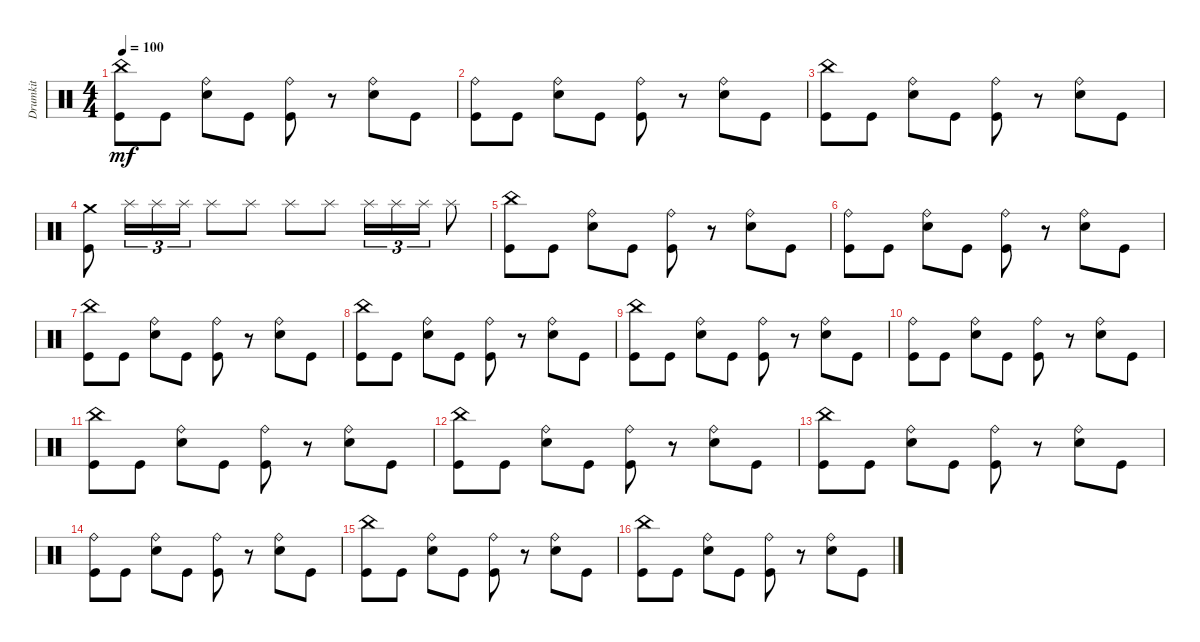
\track ("Drumkit" "Drumkit") {instrument percussion}
\staff {score}
\articulation defaults
\ts (4 4)
\tempo 100
\clef neutral
\ks c
("Kick (hit)" "China (hit)").8{dy mf} "Kick (hit)".8 ("Snare (hit) 2" "Ride (bell)").8 "Kick (hit)".8 ("Kick (hit)" "Ride (bell)").8 r.8 ("Snare (hit) 2" "Ride (bell)").8 "Kick (hit)".8 |
("Kick (hit)" "Ride (bell)").8 "Kick (hit)".8 ("Snare (hit) 2" "Ride (bell)").8 "Kick (hit)".8 ("Kick (hit)" "Ride (bell)").8 r.8 ("Snare (hit) 2" "Ride (bell)").8 "Kick (hit)".8 |
("Kick (hit)" "China (hit)").8 "Kick (hit)".8 ("Snare (hit) 2" "Ride (bell)").8 "Kick (hit)".8 ("Kick (hit)" "Ride (bell)").8 r.8 ("Snare (hit) 2" "Ride (bell)").8 "Kick (hit)".8 |
("Crash medium (hit)" "Kick (hit)").8 "Splash (hit)".16{tu (3 2)} "Splash (hit)".16{tu (3 2)} "Splash (hit)".16{tu (3 2)} "Splash (hit)".8 "Splash (hit)".8 "Splash (hit)".8 "Splash (hit)".8 "Splash (hit)".16{tu (3 2)} "Splash (hit)".16{tu (3 2)} "Splash (hit)".16{tu (3 2)} "Splash (hit)".8 |
("Kick (hit)" "China (hit)").8 "Kick (hit)".8 ("Snare (hit) 2" "Ride (bell)").8 "Kick (hit)".8 ("Kick (hit)" "Ride (bell)").8 r.8 ("Snare (hit) 2" "Ride (bell)").8 "Kick (hit)".8 |
("Kick (hit)" "Ride (bell)").8 "Kick (hit)".8 ("Snare (hit) 2" "Ride (bell)").8 "Kick (hit)".8 ("Kick (hit)" "Ride (bell)").8 r.8 ("Snare (hit) 2" "Ride (bell)").8 "Kick (hit)".8 |
("Kick (hit)" "China (hit)").8 "Kick (hit)".8 ("Snare (hit) 2" "Ride (bell)").8 "Kick (hit)".8 ("Kick (hit)" "Ride (bell)").8 r.8 ("Snare (hit) 2" "Ride (bell)").8 "Kick (hit)".8 |
("Kick (hit)" "China (hit)").8 "Kick (hit)".8 ("Snare (hit) 2" "Ride (bell)").8 "Kick (hit)".8 ("Kick (hit)" "Ride (bell)").8 r.8 ("Snare (hit) 2" "Ride (bell)").8 "Kick (hit)".8 |
("Kick (hit)" "China (hit)").8 "Kick (hit)".8 ("Snare (hit) 2" "Ride (bell)").8 "Kick (hit)".8 ("Kick (hit)" "Ride (bell)").8 r.8 ("Snare (hit) 2" "Ride (bell)").8 "Kick (hit)".8 |
("Kick (hit)" "Ride (bell)").8 "Kick (hit)".8 ("Snare (hit) 2" "Ride (bell)").8 "Kick (hit)".8 ("Kick (hit)" "Ride (bell)").8 r.8 ("Snare (hit) 2" "Ride (bell)").8 "Kick (hit)".8 |
("Kick (hit)" "China (hit)").8 "Kick (hit)".8 ("Snare (hit) 2" "Ride (bell)").8 "Kick (hit)".8 ("Kick (hit)" "Ride (bell)").8 r.8 ("Snare (hit) 2" "Ride (bell)").8 "Kick (hit)".8 |
("Kick (hit)" "China (hit)").8 "Kick (hit)".8 ("Snare (hit) 2" "Ride (bell)").8 "Kick (hit)".8 ("Kick (hit)" "Ride (bell)").8 r.8 ("Snare (hit) 2" "Ride (bell)").8 "Kick (hit)".8 |
("Kick (hit)" "China (hit)").8 "Kick (hit)".8 ("Snare (hit) 2" "Ride (bell)").8 "Kick (hit)".8 ("Kick (hit)" "Ride (bell)").8 r.8 ("Snare (hit) 2" "Ride (bell)").8 "Kick (hit)".8 |
("Kick (hit)" "Ride (bell)").8 "Kick (hit)".8 ("Snare (hit) 2" "Ride (bell)").8 "Kick (hit)".8 ("Kick (hit)" "Ride (bell)").8 r.8 ("Snare (hit) 2" "Ride (bell)").8 "Kick (hit)".8 |
("Kick (hit)" "China (hit)").8 "Kick (hit)".8 ("Snare (hit) 2" "Ride (bell)").8 "Kick (hit)".8 ("Kick (hit)" "Ride (bell)").8 r.8 ("Snare (hit) 2" "Ride (bell)").8 "Kick (hit)".8 |
("Kick (hit)" "China (hit)").8 "Kick (hit)".8 ("Snare (hit) 2" "Ride (bell)").8 "Kick (hit)".8 ("Kick (hit)" "Ride (bell)").8 r.8 ("Snare (hit) 2" "Ride (bell)").8 "Kick (hit)".8
